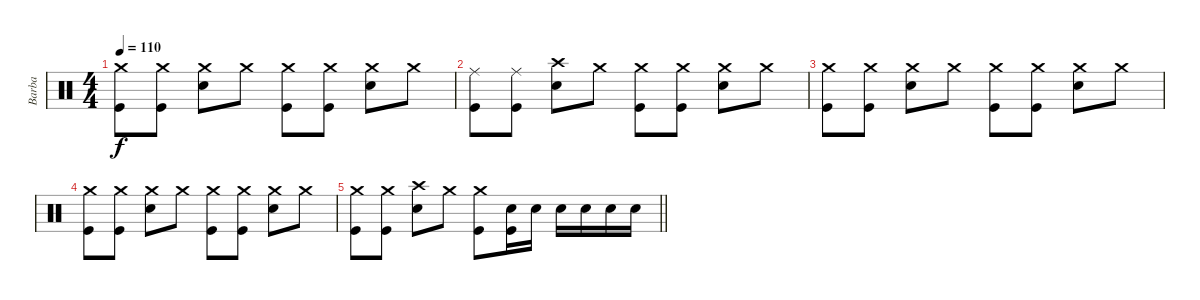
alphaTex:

\track ("Barba" "Barba") {instrument percussion}
\staff {score}
\articulation defaults
\ts (4 4)
\tempo 110
\clef neutral
\ks c
("Crash medium (hit)" "Kick (hit)").8{dy f} ("Crash medium (hit)" "Kick (hit)").8 ("Crash medium (hit)" "Electric Snare (hit)").8 "Crash medium (hit)".8 ("Crash medium (hit)" "Kick (hit)").8 ("Crash medium (hit)" "Kick (hit)").8 ("Crash medium (hit)" "Electric Snare (hit)").8 "Crash medium (hit)".8 |
("Ride (middle)" "Kick (hit)").8 ("Ride (middle)" "Kick (hit)").8 ("Crash high (hit)" "Electric Snare (hit)").8 "Crash medium (hit)".8 ("Crash medium (hit)" "Kick (hit)").8 ("Crash medium (hit)" "Kick (hit)").8 ("Crash medium (hit)" "Electric Snare (hit)").8 "Crash medium (hit)".8 |
("Crash medium (hit)" "Kick (hit)").8 ("Crash medium (hit)" "Kick (hit)").8 ("Crash medium (hit)" "Electric Snare (hit)").8 "Crash medium (hit)".8 ("Crash medium (hit)" "Kick (hit)").8 ("Crash medium (hit)" "Kick (hit)").8 ("Crash medium (hit)" "Electric Snare (hit)").8 "Crash medium (hit)".8 |
("Crash medium (hit)" "Kick (hit)").8 ("Crash medium (hit)" "Kick (hit)").8 ("Crash medium (hit)" "Electric Snare (hit)").8 "Crash medium (hit)".8 ("Crash medium (hit)" "Kick (hit)").8 ("Crash medium (hit)" "Kick (hit)").8 ("Crash medium (hit)" "Electric Snare (hit)").8 "Crash medium (hit)".8 |
\barLineRight lightlight
("Crash medium (hit)" "Kick (hit)").8 ("Crash medium (hit)" "Kick (hit)").8 ("Crash high (hit)" "Electric Snare (hit)").8 "Crash medium (hit)".8 ("Crash medium (hit)" "Kick (hit)").8 ("Electric Snare (hit)" "Kick (hit)").16 "Electric Snare (hit)".16 "Electric Snare (hit)".16 "Electric Snare (hit)".16 "Electric Snare (hit)".16 "Electric Snare (hit)".16
